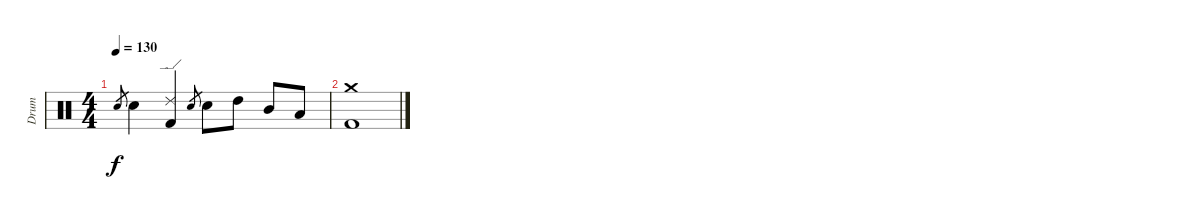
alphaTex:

\track ("Drum" "Drum") {instrument percussion}
\staff {score}
\articulation defaults
\ts (4 4)
\tempo 130
\clef neutral
\ks c "Electric Snare (hit)".8{gr dy f} "Electric Snare (hit)".4
("Ride (edge) 2" "Kick (hit) 2").4 "Electric Snare (hit)".8{gr} "Electric Snare (hit)".8 "High Tom (hit)".8 "Mid Tom (hit)".8 "Low Tom (hit)".8 |
("Crash medium (hit)" "Kick (hit) 2").1
